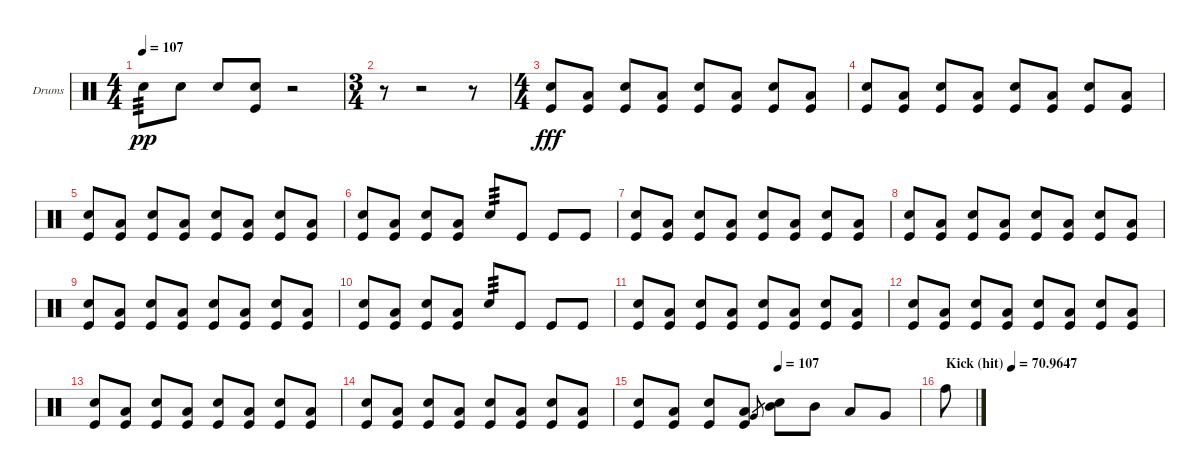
\defaultSystemsLayout 4
\bracketExtendMode groupsimilarinstruments
\firstSystemTrackNameOrientation horizontal
\otherSystemsTrackNameOrientation horizontal
\track ("Helders" "Drums") {instrument percussion}
\staff {score}
\articulation defaults
\ts (4 4)
\tempo 107
\clef neutral
\ks c "Snare (hit) 2".8{tp 3 dy pp} "Snare (hit) 2".8 "Snare (hit) 2".8
("Snare (hit) 2" "Kick (hit)").8 r.2 |
\ts (3 4)
r.8 r.2 r.8 |
\ts (4 4)
("Snare (hit) 2" "Kick (hit)").8{dy fff} ("Kick (hit)" "Low Tom (hit)").8 ("Snare (hit) 2" "Kick (hit)").8 ("Kick (hit)" "Low Tom (hit)").8 ("Snare (hit) 2" "Kick (hit)").8 ("Kick (hit)" "Low Tom (hit)").8 ("Snare (hit) 2" "Kick (hit)").8 ("Kick (hit)" "Low Tom (hit)").8 |
("Snare (hit) 2" "Kick (hit)").8 ("Kick (hit)" "Low Tom (hit)").8 ("Snare (hit) 2" "Kick (hit)").8 ("Kick (hit)" "Low Tom (hit)").8 ("Snare (hit) 2" "Kick (hit)").8 ("Kick (hit)" "Low Tom (hit)").8 ("Snare (hit) 2" "Kick (hit)").8 ("Kick (hit)" "Low Tom (hit)").8 |
("Snare (hit) 2" "Kick (hit)").8 ("Kick (hit)" "Low Tom (hit)").8 ("Snare (hit) 2" "Kick (hit)").8 ("Kick (hit)" "Low Tom (hit)").8 ("Snare (hit) 2" "Kick (hit)").8 ("Kick (hit)" "Low Tom (hit)").8 ("Snare (hit) 2" "Kick (hit)").8 ("Kick (hit)" "Low Tom (hit)").8 |
("Snare (hit) 2" "Kick (hit)").8 ("Kick (hit)" "Low Tom (hit)").8 ("Snare (hit) 2" "Kick (hit)").8 ("Kick (hit)" "Low Tom (hit)").8 "Snare (hit) 2".8{tp 3} "Kick (hit)".8 "Kick (hit)".8 "Kick (hit)".8 |
("Snare (hit) 2" "Kick (hit)").8 ("Kick (hit)" "Low Tom (hit)").8 ("Snare (hit) 2" "Kick (hit)").8 ("Kick (hit)" "Low Tom (hit)").8 ("Snare (hit) 2" "Kick (hit)").8 ("Kick (hit)" "Low Tom (hit)").8 ("Snare (hit) 2" "Kick (hit)").8 ("Kick (hit)" "Low Tom (hit)").8 |
("Snare (hit) 2" "Kick (hit)").8 ("Kick (hit)" "Low Tom (hit)").8 ("Snare (hit) 2" "Kick (hit)").8 ("Kick (hit)" "Low Tom (hit)").8 ("Snare (hit) 2" "Kick (hit)").8 ("Kick (hit)" "Low Tom (hit)").8 ("Snare (hit) 2" "Kick (hit)").8 ("Kick (hit)" "Low Tom (hit)").8 |
("Snare (hit) 2" "Kick (hit)").8 ("Kick (hit)" "Low Tom (hit)").8 ("Snare (hit) 2" "Kick (hit)").8 ("Kick (hit)" "Low Tom (hit)").8 ("Snare (hit) 2" "Kick (hit)").8 ("Kick (hit)" "Low Tom (hit)").8 ("Snare (hit) 2" "Kick (hit)").8 ("Kick (hit)" "Low Tom (hit)").8 |
("Snare (hit) 2" "Kick (hit)").8 ("Kick (hit)" "Low Tom (hit)").8 ("Snare (hit) 2" "Kick (hit)").8 ("Kick (hit)" "Low Tom (hit)").8 "Snare (hit) 2".8{tp 3} "Kick (hit)".8 "Kick (hit)".8 "Kick (hit)".8 |
("Snare (hit) 2" "Kick (hit)").8 ("Kick (hit)" "Low Tom (hit)").8 ("Snare (hit) 2" "Kick (hit)").8 ("Kick (hit)" "Low Tom (hit)").8 ("Snare (hit) 2" "Kick (hit)").8 ("Kick (hit)" "Low Tom (hit)").8 ("Snare (hit) 2" "Kick (hit)").8 ("Kick (hit)" "Low Tom (hit)").8 |
("Snare (hit) 2" "Kick (hit)").8 ("Kick (hit)" "Low Tom (hit)").8 ("Snare (hit) 2" "Kick (hit)").8 ("Kick (hit)" "Low Tom (hit)").8 ("Snare (hit) 2" "Kick (hit)").8 ("Kick (hit)" "Low Tom (hit)").8 ("Snare (hit) 2" "Kick (hit)").8 ("Kick (hit)" "Low Tom (hit)").8 |
("Snare (hit) 2" "Kick (hit)").8 ("Kick (hit)" "Low Tom (hit)").8 ("Snare (hit) 2" "Kick (hit)").8 ("Kick (hit)" "Low Tom (hit)").8 ("Snare (hit) 2" "Kick (hit)").8 ("Kick (hit)" "Low Tom (hit)").8 ("Snare (hit) 2" "Kick (hit)").8 ("Kick (hit)" "Low Tom (hit)").8 |
("Snare (hit) 2" "Kick (hit)").8 ("Kick (hit)" "Low Tom (hit)").8 ("Snare (hit) 2" "Kick (hit)").8 ("Kick (hit)" "Low Tom (hit)").8 ("Snare (hit) 2" "Kick (hit)").8 ("Kick (hit)" "Low Tom (hit)").8 ("Snare (hit) 2" "Kick (hit)").8 ("Kick (hit)" "Low Tom (hit)").8 |
\tempo (107 0.5)
("Snare (hit) 2" "Kick (hit)").8 ("Kick (hit)" "Low Tom (hit)").8 ("Snare (hit) 2" "Kick (hit)").8 ("Kick (hit)" "Low Tom (hit)").8 "Very Low Tom (hit)".8{gr} ("Mid Tom (hit)" "Snare (hit) 2").8 "Mid Tom (hit)".8 "Low Tom (hit)".8 "Very Low Tom (hit)".8 |
\tempo
70.9647 "Kick (hit)".1
